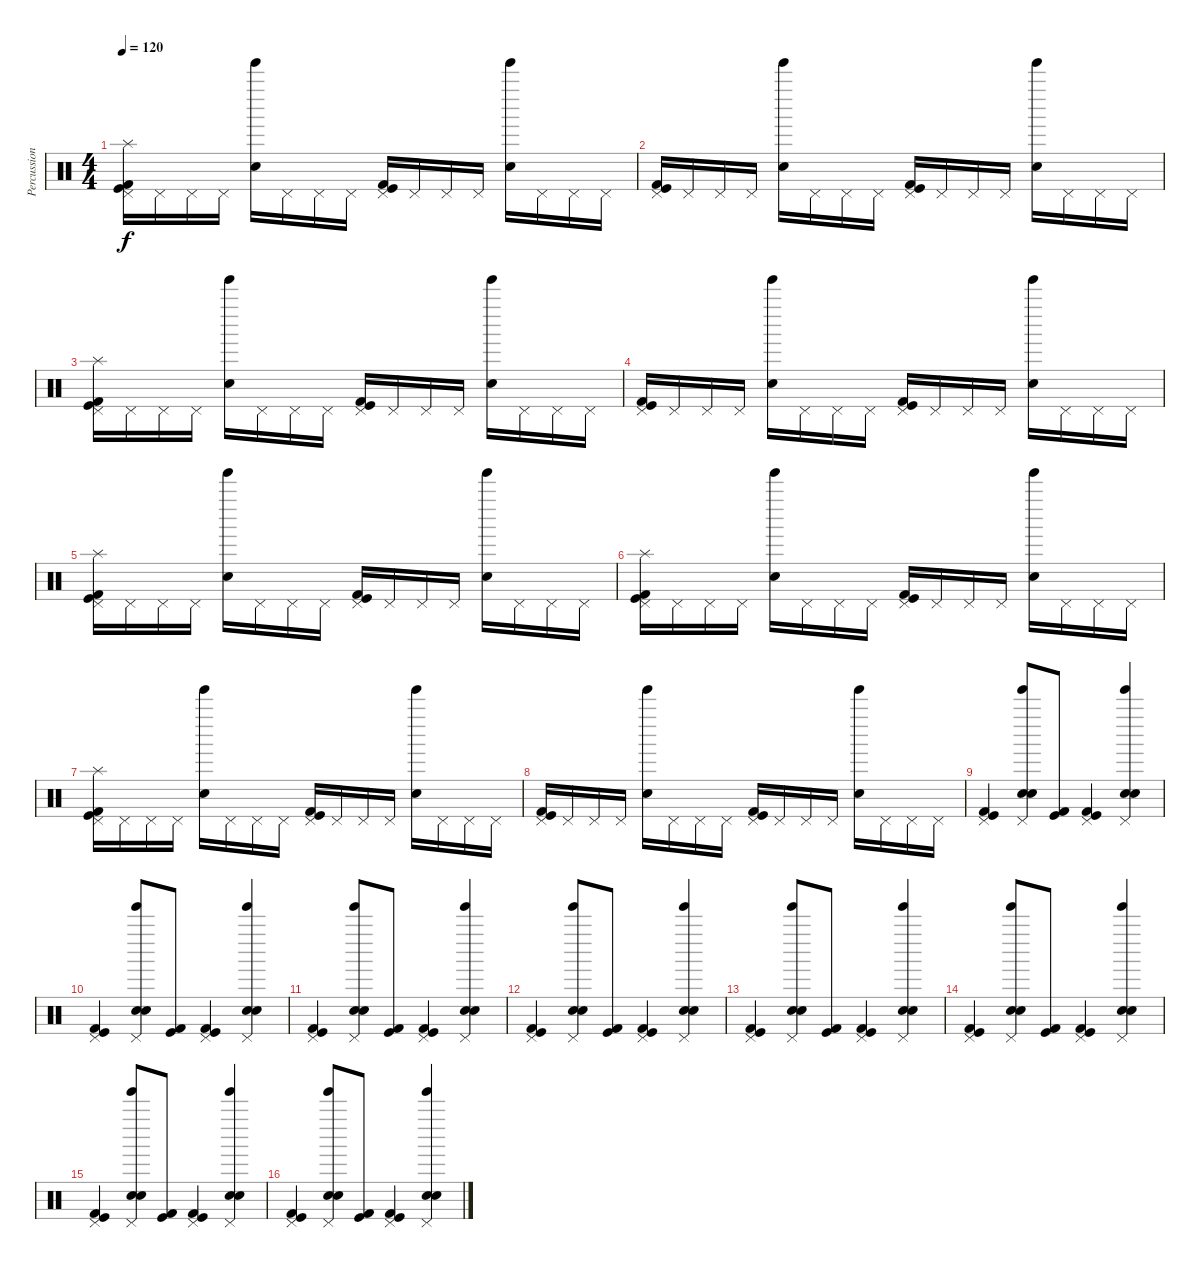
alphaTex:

\track ("Percussion" "Percussion") {instrument percussion}
\staff {score}
\articulation defaults
\ts (4 4)
\tempo 120
\clef neutral
\ks c
("Splash (hit)" "Pedal Hi-Hat (hit)" "Kick (hit)" "Kick (hit) 2").16{dy f} "Pedal Hi-Hat (hit)".16 "Pedal Hi-Hat (hit)".16 "Pedal Hi-Hat (hit)".16 ("Tinkle Bell (hit)" "Snare (hit) 2").16 "Pedal Hi-Hat (hit)".16 "Pedal Hi-Hat (hit)".16 "Pedal Hi-Hat (hit)".16 ("Pedal Hi-Hat (hit)" "Kick (hit)" "Kick (hit) 2").16 "Pedal Hi-Hat (hit)".16 "Pedal Hi-Hat (hit)".16 "Pedal Hi-Hat (hit)".16 ("Tinkle Bell (hit)" "Snare (hit) 2").16 "Pedal Hi-Hat (hit)".16 "Pedal Hi-Hat (hit)".16 "Pedal Hi-Hat (hit)".16 |
("Pedal Hi-Hat (hit)" "Kick (hit)" "Kick (hit) 2").16 "Pedal Hi-Hat (hit)".16 "Pedal Hi-Hat (hit)".16 "Pedal Hi-Hat (hit)".16 ("Tinkle Bell (hit)" "Snare (hit) 2").16 "Pedal Hi-Hat (hit)".16 "Pedal Hi-Hat (hit)".16 "Pedal Hi-Hat (hit)".16 ("Pedal Hi-Hat (hit)" "Kick (hit)" "Kick (hit) 2").16 "Pedal Hi-Hat (hit)".16 "Pedal Hi-Hat (hit)".16 "Pedal Hi-Hat (hit)".16 ("Tinkle Bell (hit)" "Snare (hit) 2").16 "Pedal Hi-Hat (hit)".16 "Pedal Hi-Hat (hit)".16 "Pedal Hi-Hat (hit)".16 |
("Splash (hit)" "Pedal Hi-Hat (hit)" "Kick (hit)" "Kick (hit) 2").16 "Pedal Hi-Hat (hit)".16 "Pedal Hi-Hat (hit)".16 "Pedal Hi-Hat (hit)".16 ("Tinkle Bell (hit)" "Snare (hit) 2").16 "Pedal Hi-Hat (hit)".16 "Pedal Hi-Hat (hit)".16 "Pedal Hi-Hat (hit)".16 ("Pedal Hi-Hat (hit)" "Kick (hit)" "Kick (hit) 2").16 "Pedal Hi-Hat (hit)".16 "Pedal Hi-Hat (hit)".16 "Pedal Hi-Hat (hit)".16 ("Tinkle Bell (hit)" "Snare (hit) 2").16 "Pedal Hi-Hat (hit)".16 "Pedal Hi-Hat (hit)".16 "Pedal Hi-Hat (hit)".16 |
("Pedal Hi-Hat (hit)" "Kick (hit)" "Kick (hit) 2").16 "Pedal Hi-Hat (hit)".16 "Pedal Hi-Hat (hit)".16 "Pedal Hi-Hat (hit)".16 ("Tinkle Bell (hit)" "Snare (hit) 2").16 "Pedal Hi-Hat (hit)".16 "Pedal Hi-Hat (hit)".16 "Pedal Hi-Hat (hit)".16 ("Pedal Hi-Hat (hit)" "Kick (hit)" "Kick (hit) 2").16 "Pedal Hi-Hat (hit)".16 "Pedal Hi-Hat (hit)".16 "Pedal Hi-Hat (hit)".16 ("Tinkle Bell (hit)" "Snare (hit) 2").16 "Pedal Hi-Hat (hit)".16 "Pedal Hi-Hat (hit)".16 "Pedal Hi-Hat (hit)".16 |
("Splash (hit)" "Pedal Hi-Hat (hit)" "Kick (hit)" "Kick (hit) 2").16 "Pedal Hi-Hat (hit)".16 "Pedal Hi-Hat (hit)".16 "Pedal Hi-Hat (hit)".16 ("Tinkle Bell (hit)" "Snare (hit) 2").16 "Pedal Hi-Hat (hit)".16 "Pedal Hi-Hat (hit)".16 "Pedal Hi-Hat (hit)".16 ("Pedal Hi-Hat (hit)" "Kick (hit)" "Kick (hit) 2").16 "Pedal Hi-Hat (hit)".16 "Pedal Hi-Hat (hit)".16 "Pedal Hi-Hat (hit)".16 ("Tinkle Bell (hit)" "Snare (hit) 2").16 "Pedal Hi-Hat (hit)".16 "Pedal Hi-Hat (hit)".16 "Pedal Hi-Hat (hit)".16 |
("Splash (hit)" "Pedal Hi-Hat (hit)" "Kick (hit)" "Kick (hit) 2").16 "Pedal Hi-Hat (hit)".16 "Pedal Hi-Hat (hit)".16 "Pedal Hi-Hat (hit)".16 ("Tinkle Bell (hit)" "Snare (hit) 2").16 "Pedal Hi-Hat (hit)".16 "Pedal Hi-Hat (hit)".16 "Pedal Hi-Hat (hit)".16 ("Pedal Hi-Hat (hit)" "Kick (hit)" "Kick (hit) 2").16 "Pedal Hi-Hat (hit)".16 "Pedal Hi-Hat (hit)".16 "Pedal Hi-Hat (hit)".16 ("Tinkle Bell (hit)" "Snare (hit) 2").16 "Pedal Hi-Hat (hit)".16 "Pedal Hi-Hat (hit)".16 "Pedal Hi-Hat (hit)".16 |
("Splash (hit)" "Pedal Hi-Hat (hit)" "Kick (hit)" "Kick (hit) 2").16 "Pedal Hi-Hat (hit)".16 "Pedal Hi-Hat (hit)".16 "Pedal Hi-Hat (hit)".16 ("Tinkle Bell (hit)" "Snare (hit) 2").16 "Pedal Hi-Hat (hit)".16 "Pedal Hi-Hat (hit)".16 "Pedal Hi-Hat (hit)".16 ("Pedal Hi-Hat (hit)" "Kick (hit)" "Kick (hit) 2").16 "Pedal Hi-Hat (hit)".16 "Pedal Hi-Hat (hit)".16 "Pedal Hi-Hat (hit)".16 ("Tinkle Bell (hit)" "Snare (hit) 2").16 "Pedal Hi-Hat (hit)".16 "Pedal Hi-Hat (hit)".16 "Pedal Hi-Hat (hit)".16 |
("Pedal Hi-Hat (hit)" "Kick (hit)" "Kick (hit) 2").16 "Pedal Hi-Hat (hit)".16 "Pedal Hi-Hat (hit)".16 "Pedal Hi-Hat (hit)".16 ("Tinkle Bell (hit)" "Snare (hit) 2").16 "Pedal Hi-Hat (hit)".16 "Pedal Hi-Hat (hit)".16 "Pedal Hi-Hat (hit)".16 ("Pedal Hi-Hat (hit)" "Kick (hit)" "Kick (hit) 2").16 "Pedal Hi-Hat (hit)".16 "Pedal Hi-Hat (hit)".16 "Pedal Hi-Hat (hit)".16 ("Tinkle Bell (hit)" "Snare (hit) 2").16 "Pedal Hi-Hat (hit)".16 "Pedal Hi-Hat (hit)".16 "Pedal Hi-Hat (hit)".16 |
("Pedal Hi-Hat (hit)" "Kick (hit)" "Kick (hit) 2").4 ("Tinkle Bell (hit)" "Pedal Hi-Hat (hit)" "Snare (hit) 2" "Electric Snare (hit)").8 ("Kick (hit)" "Kick (hit) 2").8 ("Pedal Hi-Hat (hit)" "Kick (hit)" "Kick (hit) 2").4 ("Tinkle Bell (hit)" "Pedal Hi-Hat (hit)" "Snare (hit) 2" "Electric Snare (hit)").4 |
("Pedal Hi-Hat (hit)" "Kick (hit)" "Kick (hit) 2").4 ("Tinkle Bell (hit)" "Pedal Hi-Hat (hit)" "Snare (hit) 2" "Electric Snare (hit)").8 ("Kick (hit)" "Kick (hit) 2").8 ("Pedal Hi-Hat (hit)" "Kick (hit)" "Kick (hit) 2").4 ("Tinkle Bell (hit)" "Pedal Hi-Hat (hit)" "Snare (hit) 2" "Electric Snare (hit)").4 |
("Pedal Hi-Hat (hit)" "Kick (hit)" "Kick (hit) 2").4 ("Tinkle Bell (hit)" "Pedal Hi-Hat (hit)" "Snare (hit) 2" "Electric Snare (hit)").8 ("Kick (hit)" "Kick (hit) 2").8 ("Pedal Hi-Hat (hit)" "Kick (hit)" "Kick (hit) 2").4 ("Tinkle Bell (hit)" "Pedal Hi-Hat (hit)" "Snare (hit) 2" "Electric Snare (hit)").4 |
("Pedal Hi-Hat (hit)" "Kick (hit)" "Kick (hit) 2").4 ("Tinkle Bell (hit)" "Pedal Hi-Hat (hit)" "Snare (hit) 2" "Electric Snare (hit)").8 ("Kick (hit)" "Kick (hit) 2").8 ("Pedal Hi-Hat (hit)" "Kick (hit)" "Kick (hit) 2").4 ("Tinkle Bell (hit)" "Pedal Hi-Hat (hit)" "Snare (hit) 2" "Electric Snare (hit)").4 |
("Pedal Hi-Hat (hit)" "Kick (hit)" "Kick (hit) 2").4 ("Tinkle Bell (hit)" "Pedal Hi-Hat (hit)" "Snare (hit) 2" "Electric Snare (hit)").8 ("Kick (hit)" "Kick (hit) 2").8 ("Pedal Hi-Hat (hit)" "Kick (hit)" "Kick (hit) 2").4 ("Tinkle Bell (hit)" "Pedal Hi-Hat (hit)" "Snare (hit) 2" "Electric Snare (hit)").4 |
("Pedal Hi-Hat (hit)" "Kick (hit)" "Kick (hit) 2").4 ("Tinkle Bell (hit)" "Pedal Hi-Hat (hit)" "Snare (hit) 2" "Electric Snare (hit)").8 ("Kick (hit)" "Kick (hit) 2").8 ("Pedal Hi-Hat (hit)" "Kick (hit)" "Kick (hit) 2").4 ("Tinkle Bell (hit)" "Pedal Hi-Hat (hit)" "Snare (hit) 2" "Electric Snare (hit)").4 |
("Pedal Hi-Hat (hit)" "Kick (hit)" "Kick (hit) 2").4 ("Tinkle Bell (hit)" "Pedal Hi-Hat (hit)" "Snare (hit) 2" "Electric Snare (hit)").8 ("Kick (hit)" "Kick (hit) 2").8 ("Pedal Hi-Hat (hit)" "Kick (hit)" "Kick (hit) 2").4 ("Tinkle Bell (hit)" "Pedal Hi-Hat (hit)" "Snare (hit) 2" "Electric Snare (hit)").4 |
("Pedal Hi-Hat (hit)" "Kick (hit)" "Kick (hit) 2").4 ("Tinkle Bell (hit)" "Pedal Hi-Hat (hit)" "Snare (hit) 2" "Electric Snare (hit)").8 ("Kick (hit)" "Kick (hit) 2").8 ("Pedal Hi-Hat (hit)" "Kick (hit)" "Kick (hit) 2").4 ("Tinkle Bell (hit)" "Pedal Hi-Hat (hit)" "Snare (hit) 2" "Electric Snare (hit)").4
